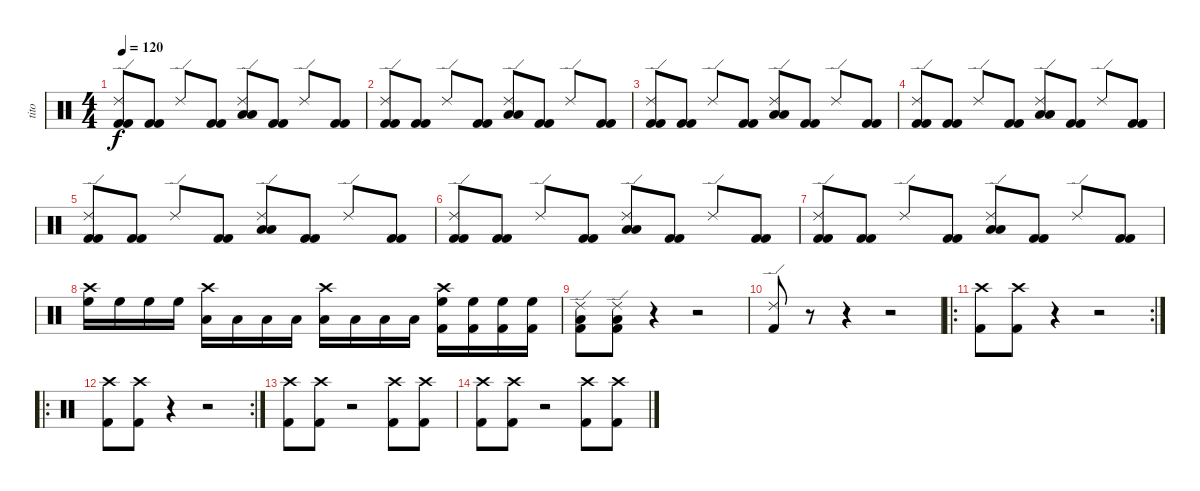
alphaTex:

\track ("tito" "tito") {instrument percussion}
\staff {score}
\articulation defaults
\ts (4 4)
\tempo 120
\clef neutral
\ks c
("Ride (edge) 2" "Kick (hit) 2" "Kick (hit) 2").8{dy f} ("Kick (hit) 2" "Kick (hit) 2").8 "Ride (edge) 2".8 ("Kick (hit) 2" "Kick (hit) 2").8 ("Ride (edge) 2" "Low Floor Tom (hit)" "Low Tom (hit)").8 ("Kick (hit) 2" "Kick (hit) 2").8 "Ride (edge) 2".8 ("Kick (hit) 2" "Kick (hit) 2").8 |
("Ride (edge) 2" "Kick (hit) 2" "Kick (hit) 2").8 ("Kick (hit) 2" "Kick (hit) 2").8 "Ride (edge) 2".8 ("Kick (hit) 2" "Kick (hit) 2").8 ("Ride (edge) 2" "Low Floor Tom (hit)" "Low Tom (hit)").8 ("Kick (hit) 2" "Kick (hit) 2").8 "Ride (edge) 2".8 ("Kick (hit) 2" "Kick (hit) 2").8 |
("Ride (edge) 2" "Kick (hit) 2" "Kick (hit) 2").8 ("Kick (hit) 2" "Kick (hit) 2").8 "Ride (edge) 2".8 ("Kick (hit) 2" "Kick (hit) 2").8 ("Ride (edge) 2" "Low Floor Tom (hit)" "Low Tom (hit)").8 ("Kick (hit) 2" "Kick (hit) 2").8 "Ride (edge) 2".8 ("Kick (hit) 2" "Kick (hit) 2").8 |
("Ride (edge) 2" "Kick (hit) 2" "Kick (hit) 2").8 ("Kick (hit) 2" "Kick (hit) 2").8 "Ride (edge) 2".8 ("Kick (hit) 2" "Kick (hit) 2").8 ("Ride (edge) 2" "Low Floor Tom (hit)" "Low Tom (hit)").8 ("Kick (hit) 2" "Kick (hit) 2").8 "Ride (edge) 2".8 ("Kick (hit) 2" "Kick (hit) 2").8 |
("Ride (edge) 2" "Kick (hit) 2" "Kick (hit) 2").8 ("Kick (hit) 2" "Kick (hit) 2").8 "Ride (edge) 2".8 ("Kick (hit) 2" "Kick (hit) 2").8 ("Ride (edge) 2" "Low Floor Tom (hit)" "Low Tom (hit)").8 ("Kick (hit) 2" "Kick (hit) 2").8 "Ride (edge) 2".8 ("Kick (hit) 2" "Kick (hit) 2").8 |
("Ride (edge) 2" "Kick (hit) 2" "Kick (hit) 2").8 ("Kick (hit) 2" "Kick (hit) 2").8 "Ride (edge) 2".8 ("Kick (hit) 2" "Kick (hit) 2").8 ("Ride (edge) 2" "Low Floor Tom (hit)" "Low Tom (hit)").8 ("Kick (hit) 2" "Kick (hit) 2").8 "Ride (edge) 2".8 ("Kick (hit) 2" "Kick (hit) 2").8 |
("Ride (edge) 2" "Kick (hit) 2" "Kick (hit) 2").8 ("Kick (hit) 2" "Kick (hit) 2").8 "Ride (edge) 2".8 ("Kick (hit) 2" "Kick (hit) 2").8 ("Ride (edge) 2" "Low Floor Tom (hit)" "Low Tom (hit)").8 ("Kick (hit) 2" "Kick (hit) 2").8 "Ride (edge) 2".8 ("Kick (hit) 2" "Kick (hit) 2").8 |
("Crash high (hit)" "High Floor Tom (hit)").16 "High Floor Tom (hit)".16 "High Floor Tom (hit)".16 "High Floor Tom (hit)".16 ("Crash high (hit)" "Low Floor Tom (hit)").16 "Low Floor Tom (hit)".16 "Low Floor Tom (hit)".16 "Low Floor Tom (hit)".16 ("Crash high (hit)" "Low Tom (hit)").16 "Low Tom (hit)".16 "Low Tom (hit)".16 "Low Tom (hit)".16 ("Crash high (hit)" "High Floor Tom (hit)" "Kick (hit) 2").16 ("High Floor Tom (hit)" "Kick (hit) 2").16 ("High Floor Tom (hit)" "Kick (hit) 2").16 ("High Floor Tom (hit)" "Kick (hit) 2").16 |
("Ride (edge) 2" "Low Tom (hit)" "Kick (hit) 2").8 ("Ride (edge) 2" "Low Tom (hit)" "Kick (hit) 2").8 r.4 r.2 |
("Kick (hit) 2" "Ride (edge) 2").8 r.8 r.4 r.2 |
\ro
\rc 2
("Crash high (hit)" "Kick (hit) 2").8 ("Crash high (hit)" "Kick (hit) 2").8 r.4 r.2 |
\ro
\rc 2
("Crash high (hit)" "Kick (hit) 2").8 ("Crash high (hit)" "Kick (hit) 2").8 r.4 r.2 |
("Crash high (hit)" "Kick (hit) 2").8 ("Crash high (hit)" "Kick (hit) 2").8 r.2 ("Crash high (hit)" "Kick (hit) 2").8 ("Crash high (hit)" "Kick (hit) 2").8 |
("Crash high (hit)" "Kick (hit) 2").8 ("Crash high (hit)" "Kick (hit) 2").8 r.2 ("Crash high (hit)" "Kick (hit) 2").8 ("Crash high (hit)" "Kick (hit) 2").8
